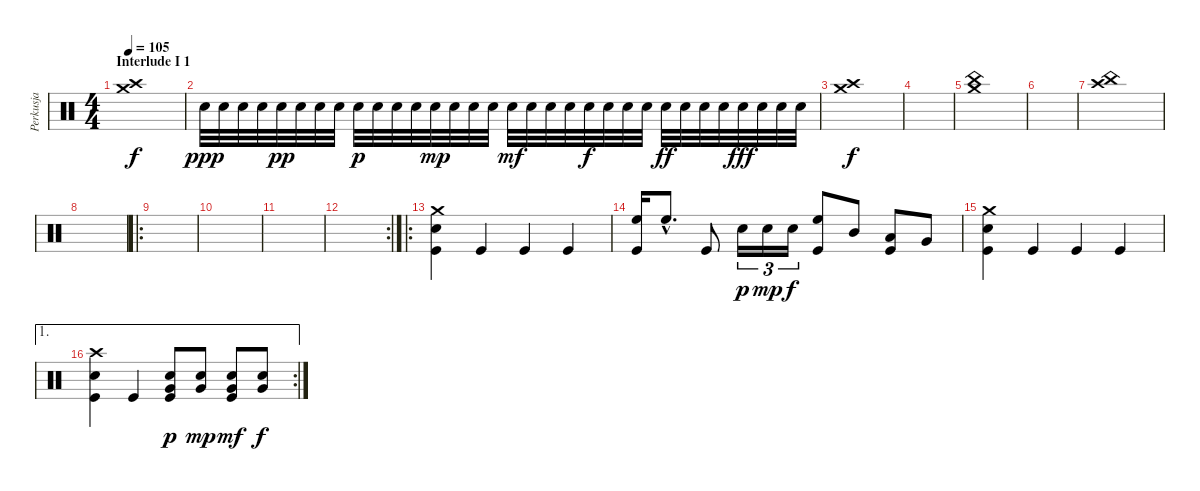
\track ("Perkusja" "Perkusja") {instrument percussion}
\staff {score}
\articulation defaults
\ts (4 4)
\section ("" "Interlude I 1")
\tempo 105
\clef neutral
\ks c
("Crash high (hit)" "Crash medium (hit)").1{dy f} |
"Snare (hit) 2".32{dy ppp} "Snare (hit) 2".32 "Snare (hit) 2".32 "Snare (hit) 2".32 "Snare (hit) 2".32{dy pp} "Snare (hit) 2".32 "Snare (hit) 2".32 "Snare (hit) 2".32 "Snare (hit) 2".32{dy p} "Snare (hit) 2".32 "Snare (hit) 2".32 "Snare (hit) 2".32 "Snare (hit) 2".32{dy mp} "Snare (hit) 2".32 "Snare (hit) 2".32 "Snare (hit) 2".32 "Snare (hit) 2".32{dy mf} "Snare (hit) 2".32 "Snare (hit) 2".32 "Snare (hit) 2".32 "Snare (hit) 2".32{dy f} "Snare (hit) 2".32 "Snare (hit) 2".32 "Snare (hit) 2".32 "Snare (hit) 2".32{dy ff} "Snare (hit) 2".32 "Snare (hit) 2".32 "Snare (hit) 2".32 "Snare (hit) 2".32{dy fff} "Snare (hit) 2".32 "Snare (hit) 2".32 "Snare (hit) 2".32 |
("Crash high (hit)" "Crash medium (hit)").1{dy f} |
|
("Crash medium (hit)" "China (hit)").1 |
|
("Crash high (hit)" "China (hit)").1 |
|
\ro
|
|
|
\rc 2
|
\ro
("Crash medium (hit)" "Snare (hit) 2" "Kick (hit)").4 "Kick (hit)".4 "Kick (hit)".4 "Kick (hit)".4 |
("High Floor Tom (hit)" "Kick (hit)").16 "High Floor Tom (hit)"{hac}.8{d} "Kick (hit)".8 "Snare (hit) 2".16{tu (3 2) dy p} "Snare (hit) 2".16{tu (3 2) dy mp} "Snare (hit) 2".16{tu (3 2) dy f} ("High Floor Tom (hit)" "Kick (hit)").8 "Mid Tom (hit)".8 ("Low Tom (hit)" "Kick (hit)").8 "Very Low Tom (hit)".8 |
("Crash medium (hit)" "Snare (hit) 2" "Kick (hit)").4 "Kick (hit)".4 "Kick (hit)".4 "Kick (hit)".4 |
\ae 1
\rc 2
("Crash high (hit)" "Snare (hit) 2" "Kick (hit)").4 "Kick (hit)".4 ("Snare (hit) 2" "Very Low Tom (hit)" "Kick (hit)").8{dy p} ("Snare (hit) 2" "Very Low Tom (hit)").8{dy mp} ("Snare (hit) 2" "Very Low Tom (hit)" "Kick (hit)").8{dy mf} ("Snare (hit) 2" "Very Low Tom (hit)").8{dy f}
